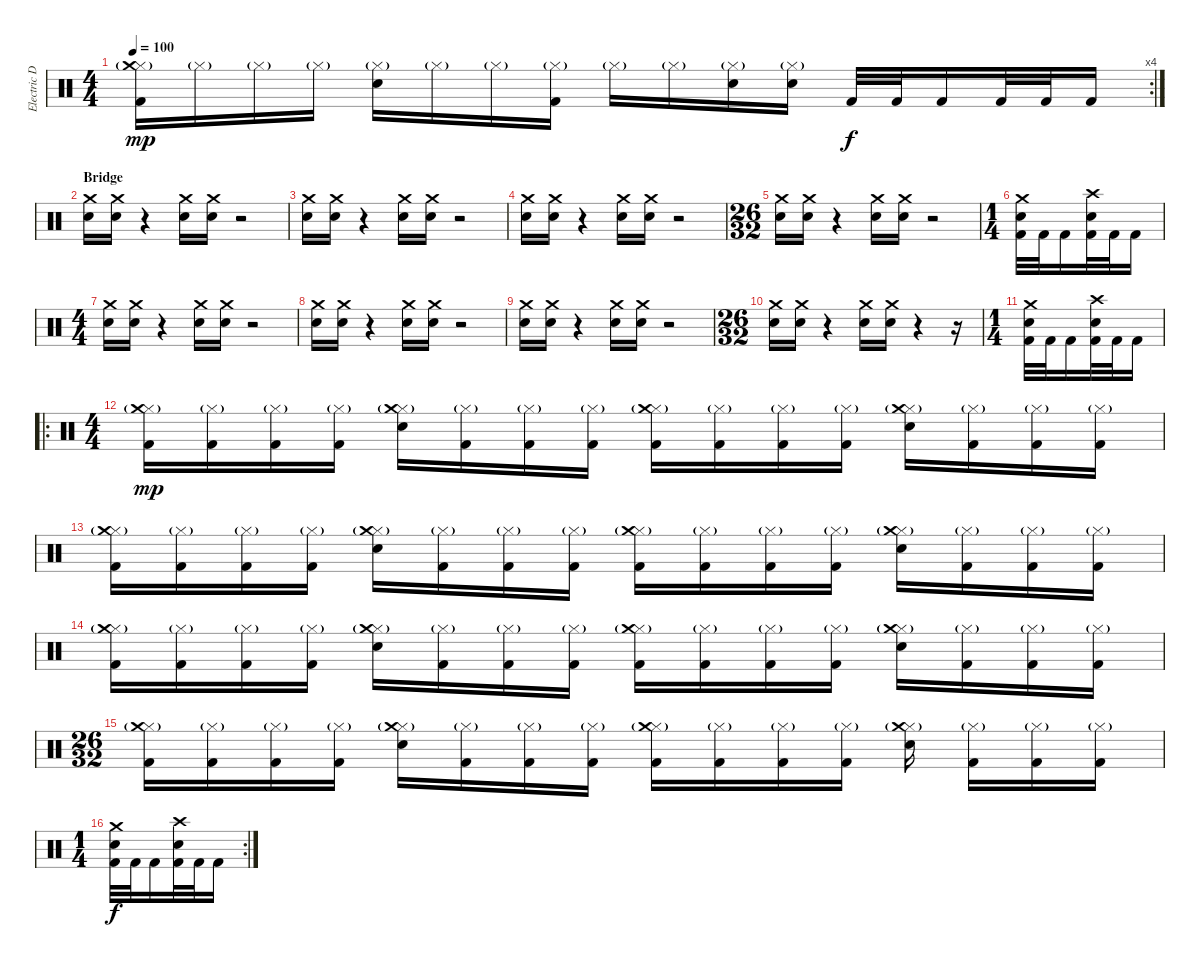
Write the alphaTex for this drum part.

\track ("Electric Drums" "Electric D") {instrument percussion}
\staff {score}
\articulation defaults
\rc 4
\ts (4 4)
\tempo 100
\clef neutral
\ks c
("Hi-Hat (closed)"{g} "Kick (hit) 2" "Crash medium (hit)").16{dy mp} "Hi-Hat (closed)"{g}.16 "Hi-Hat (closed)"{g}.16 "Hi-Hat (closed)"{g}.16 ("Hi-Hat (closed)"{g} "Snare (hit) 2").16 "Hi-Hat (closed)"{g}.16 "Hi-Hat (closed)"{g}.16 ("Hi-Hat (closed)"{g} "Kick (hit) 2").16 "Hi-Hat (closed)"{g}.16 "Hi-Hat (closed)"{g}.16 ("Hi-Hat (closed)"{g} "Snare (hit) 2").16 ("Hi-Hat (closed)"{g} "Snare (hit) 2").16 "Kick (hit) 2".32{dy f} "Kick (hit) 2".32 "Kick (hit) 2".16 "Kick (hit) 2".32 "Kick (hit) 2".32 "Kick (hit) 2".16 |
\section ("" "Bridge")
("Crash medium (hit)" "Snare (hit) 2").16 ("Crash medium (hit)" "Snare (hit) 2").16 r.4 ("Crash medium (hit)" "Snare (hit) 2").16 ("Crash medium (hit)" "Snare (hit) 2").16 r.2 |
("Crash medium (hit)" "Snare (hit) 2").16 ("Crash medium (hit)" "Snare (hit) 2").16 r.4 ("Crash medium (hit)" "Snare (hit) 2").16 ("Crash medium (hit)" "Snare (hit) 2").16 r.2 |
("Crash medium (hit)" "Snare (hit) 2").16 ("Crash medium (hit)" "Snare (hit) 2").16 r.4 ("Crash medium (hit)" "Snare (hit) 2").16 ("Crash medium (hit)" "Snare (hit) 2").16 r.2 |
\ts (26 32)
("Crash medium (hit)" "Snare (hit) 2").16 ("Crash medium (hit)" "Snare (hit) 2").16 r.4 ("Crash medium (hit)" "Snare (hit) 2").16 ("Crash medium (hit)" "Snare (hit) 2").16 r.2 |
\ts (1 4)
("Crash medium (hit)" "Snare (hit) 2" "Kick (hit) 2").32 "Kick (hit) 2".32 "Kick (hit) 2".16 ("Crash high (hit)" "Snare (hit) 2" "Kick (hit) 2").32 "Kick (hit) 2".32 "Kick (hit) 2".16 |
\ts (4 4)
("Crash medium (hit)" "Snare (hit) 2").16 ("Crash medium (hit)" "Snare (hit) 2").16 r.4 ("Crash medium (hit)" "Snare (hit) 2").16 ("Crash medium (hit)" "Snare (hit) 2").16 r.2 |
("Crash medium (hit)" "Snare (hit) 2").16 ("Crash medium (hit)" "Snare (hit) 2").16 r.4 ("Crash medium (hit)" "Snare (hit) 2").16 ("Crash medium (hit)" "Snare (hit) 2").16 r.2 |
("Crash medium (hit)" "Snare (hit) 2").16 ("Crash medium (hit)" "Snare (hit) 2").16 r.4 ("Crash medium (hit)" "Snare (hit) 2").16 ("Crash medium (hit)" "Snare (hit) 2").16 r.2 |
\ts (26 32)
("Crash medium (hit)" "Snare (hit) 2").16 ("Crash medium (hit)" "Snare (hit) 2").16 r.4 ("Crash medium (hit)" "Snare (hit) 2").16 ("Crash medium (hit)" "Snare (hit) 2").16 r.4 r.16 |
\ts (1 4)
("Crash medium (hit)" "Snare (hit) 2" "Kick (hit) 2").32 "Kick (hit) 2".32 "Kick (hit) 2".16 ("Crash high (hit)" "Snare (hit) 2" "Kick (hit) 2").32 "Kick (hit) 2".32 "Kick (hit) 2".16 |
\ro
\ts (4 4)
("Hi-Hat (closed)"{g} "Kick (hit) 2" "Crash medium (hit)").16{dy mp} ("Hi-Hat (closed)"{g} "Kick (hit) 2").16 ("Hi-Hat (closed)"{g} "Kick (hit) 2").16 ("Hi-Hat (closed)"{g} "Kick (hit) 2").16 ("Hi-Hat (closed)"{g} "Snare (hit) 2" "Crash medium (hit)").16 ("Hi-Hat (closed)"{g} "Kick (hit) 2").16 ("Hi-Hat (closed)"{g} "Kick (hit) 2").16 ("Hi-Hat (closed)"{g} "Kick (hit) 2").16 ("Hi-Hat (closed)"{g} "Kick (hit) 2" "Crash medium (hit)").16 ("Hi-Hat (closed)"{g} "Kick (hit) 2").16 ("Hi-Hat (closed)"{g} "Kick (hit) 2").16 ("Hi-Hat (closed)"{g} "Kick (hit) 2").16 ("Hi-Hat (closed)"{g} "Snare (hit) 2" "Crash medium (hit)").16 ("Hi-Hat (closed)"{g} "Kick (hit) 2").16 ("Hi-Hat (closed)"{g} "Kick (hit) 2").16 ("Hi-Hat (closed)"{g} "Kick (hit) 2").16 |
("Hi-Hat (closed)"{g} "Kick (hit) 2" "Crash medium (hit)").16 ("Hi-Hat (closed)"{g} "Kick (hit) 2").16 ("Hi-Hat (closed)"{g} "Kick (hit) 2").16 ("Hi-Hat (closed)"{g} "Kick (hit) 2").16 ("Hi-Hat (closed)"{g} "Snare (hit) 2" "Crash medium (hit)").16 ("Hi-Hat (closed)"{g} "Kick (hit) 2").16 ("Hi-Hat (closed)"{g} "Kick (hit) 2").16 ("Hi-Hat (closed)"{g} "Kick (hit) 2").16 ("Hi-Hat (closed)"{g} "Kick (hit) 2" "Crash medium (hit)").16 ("Hi-Hat (closed)"{g} "Kick (hit) 2").16 ("Hi-Hat (closed)"{g} "Kick (hit) 2").16 ("Hi-Hat (closed)"{g} "Kick (hit) 2").16 ("Hi-Hat (closed)"{g} "Snare (hit) 2" "Crash medium (hit)").16 ("Hi-Hat (closed)"{g} "Kick (hit) 2").16 ("Hi-Hat (closed)"{g} "Kick (hit) 2").16 ("Hi-Hat (closed)"{g} "Kick (hit) 2").16 |
("Hi-Hat (closed)"{g} "Kick (hit) 2" "Crash medium (hit)").16 ("Hi-Hat (closed)"{g} "Kick (hit) 2").16 ("Hi-Hat (closed)"{g} "Kick (hit) 2").16 ("Hi-Hat (closed)"{g} "Kick (hit) 2").16 ("Hi-Hat (closed)"{g} "Snare (hit) 2" "Crash medium (hit)").16 ("Hi-Hat (closed)"{g} "Kick (hit) 2").16 ("Hi-Hat (closed)"{g} "Kick (hit) 2").16 ("Hi-Hat (closed)"{g} "Kick (hit) 2").16 ("Hi-Hat (closed)"{g} "Kick (hit) 2" "Crash medium (hit)").16 ("Hi-Hat (closed)"{g} "Kick (hit) 2").16 ("Hi-Hat (closed)"{g} "Kick (hit) 2").16 ("Hi-Hat (closed)"{g} "Kick (hit) 2").16 ("Hi-Hat (closed)"{g} "Snare (hit) 2" "Crash medium (hit)").16 ("Hi-Hat (closed)"{g} "Kick (hit) 2").16 ("Hi-Hat (closed)"{g} "Kick (hit) 2").16 ("Hi-Hat (closed)"{g} "Kick (hit) 2").16 |
\ts (26 32)
("Hi-Hat (closed)"{g} "Kick (hit) 2" "Crash medium (hit)").16 ("Hi-Hat (closed)"{g} "Kick (hit) 2").16 ("Hi-Hat (closed)"{g} "Kick (hit) 2").16 ("Hi-Hat (closed)"{g} "Kick (hit) 2").16 ("Hi-Hat (closed)"{g} "Snare (hit) 2" "Crash medium (hit)").16 ("Hi-Hat (closed)"{g} "Kick (hit) 2").16 ("Hi-Hat (closed)"{g} "Kick (hit) 2").16 ("Hi-Hat (closed)"{g} "Kick (hit) 2").16 ("Hi-Hat (closed)"{g} "Kick (hit) 2" "Crash medium (hit)").16 ("Hi-Hat (closed)"{g} "Kick (hit) 2").16 ("Hi-Hat (closed)"{g} "Kick (hit) 2").16 ("Hi-Hat (closed)"{g} "Kick (hit) 2").16 ("Hi-Hat (closed)"{g} "Snare (hit) 2" "Crash medium (hit)").16 ("Hi-Hat (closed)"{g} "Kick (hit) 2").16 ("Hi-Hat (closed)"{g} "Kick (hit) 2").16 ("Hi-Hat (closed)"{g} "Kick (hit) 2").16 |
\rc 2
\ts (1 4)
("Crash medium (hit)" "Snare (hit) 2" "Kick (hit) 2").32{dy f} "Kick (hit) 2".32 "Kick (hit) 2".16 ("Crash high (hit)" "Snare (hit) 2" "Kick (hit) 2").32 "Kick (hit) 2".32 "Kick (hit) 2".16
